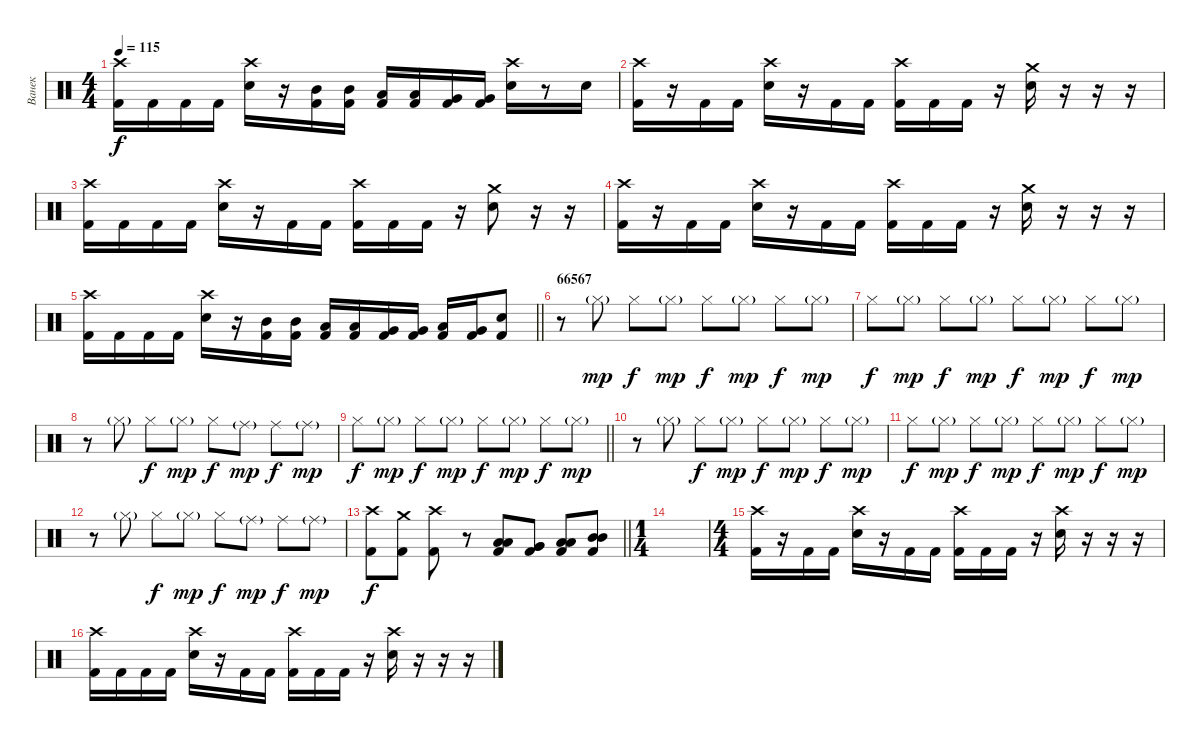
\track ("Ванек" "Ванек") {instrument percussion}
\staff {score}
\articulation defaults
\ts (4 4)
\tempo 115
\clef neutral
\ks c
("Crash high (hit)" "Kick (hit) 2").16{dy f} "Kick (hit) 2".16 "Kick (hit) 2".16 "Kick (hit) 2".16 ("Crash high (hit)" "Snare (hit) 2").16 r.16 ("Mid Tom (hit)" "Kick (hit) 2").16 ("Mid Tom (hit)" "Kick (hit) 2").16 ("Low Tom (hit)" "Kick (hit) 2").16 ("Low Floor Tom (hit)" "Kick (hit) 2").16 ("Very Low Tom (hit)" "Kick (hit) 2").16 ("Very Low Tom (hit)" "Kick (hit) 2").16 ("Crash high (hit)" "Snare (hit) 2").16 r.8 "Snare (hit) 2".16 |
("Crash high (hit)" "Kick (hit) 2").16 r.16 "Kick (hit) 2".16 "Kick (hit) 2".16 ("Crash high (hit)" "Snare (hit) 2").16 r.16 "Kick (hit) 2".16 "Kick (hit) 2".16 ("Crash high (hit)" "Kick (hit) 2").16 "Kick (hit) 2".16 "Kick (hit) 2".16 r.16 ("Crash medium (hit)" "Snare (hit) 2").16 r.16 r.16 r.16 |
("Crash high (hit)" "Kick (hit) 2").16 "Kick (hit) 2".16 "Kick (hit) 2".16 "Kick (hit) 2".16 ("Crash high (hit)" "Snare (hit) 2").16 r.16 "Kick (hit) 2".16 "Kick (hit) 2".16 ("Crash high (hit)" "Kick (hit) 2").16 "Kick (hit) 2".16 "Kick (hit) 2".16 r.16 ("Crash medium (hit)" "Snare (hit) 2").8 r.16 r.16 |
("Crash high (hit)" "Kick (hit) 2").16 r.16 "Kick (hit) 2".16 "Kick (hit) 2".16 ("Crash high (hit)" "Snare (hit) 2").16 r.16 "Kick (hit) 2".16 "Kick (hit) 2".16 ("Crash high (hit)" "Kick (hit) 2").16 "Kick (hit) 2".16 "Kick (hit) 2".16 r.16 ("Crash medium (hit)" "Snare (hit) 2").16 r.16 r.16 r.16 |
\barLineRight lightlight
("Crash high (hit)" "Kick (hit) 2").16 "Kick (hit) 2".16 "Kick (hit) 2".16 "Kick (hit) 2".16 ("Crash high (hit)" "Snare (hit) 2").16 r.16 ("Mid Tom (hit)" "Kick (hit) 2").16 ("Mid Tom (hit)" "Kick (hit) 2").16 ("Low Tom (hit)" "Kick (hit) 2").16 ("Low Floor Tom (hit)" "Kick (hit) 2").16 ("Very Low Tom (hit)" "Kick (hit) 2").16 ("Very Low Tom (hit)" "Kick (hit) 2").16 ("Low Floor Tom (hit)" "Kick (hit) 2").16 ("Very Low Tom (hit)" "Kick (hit) 2").16 ("Snare (hit) 2" "Kick (hit) 2").8 |
\section ("" "66567")
r.8 "Hi-Hat (closed)"{g}.8{dy mp} "Hi-Hat (closed)".8{dy f} "Hi-Hat (closed)"{g}.8{dy mp} "Hi-Hat (closed)".8{dy f} "Hi-Hat (closed)"{g}.8{dy mp} "Hi-Hat (closed)".8{dy f} "Hi-Hat (closed)"{g}.8{dy mp} |
"Hi-Hat (closed)".8{dy f} "Hi-Hat (closed)"{g}.8{dy mp} "Hi-Hat (closed)".8{dy f} "Hi-Hat (closed)"{g}.8{dy mp} "Hi-Hat (closed)".8{dy f} "Hi-Hat (closed)"{g}.8{dy mp} "Hi-Hat (closed)".8{dy f} "Hi-Hat (closed)"{g}.8{dy mp} |
r.8 "Hi-Hat (closed)"{g}.8 "Hi-Hat (closed)".8{dy f} "Hi-Hat (closed)"{g}.8{dy mp} "Hi-Hat (closed)".8{dy f} "Ride (middle)"{g}.8{dy mp} "Ride (middle)".8{dy f} "Ride (middle)"{g}.8{dy mp} |
\barLineRight lightlight "Hi-Hat (closed)".8{dy f} "Hi-Hat (closed)"{g}.8{dy mp} "Hi-Hat (closed)".8{dy f} "Hi-Hat (closed)"{g}.8{dy mp} "Hi-Hat (closed)".8{dy f} "Hi-Hat (closed)"{g}.8{dy mp} "Hi-Hat (closed)".8{dy f} "Hi-Hat (closed)"{g}.8{dy mp}
|
\section ("" "")
r.8 "Hi-Hat (closed)"{g}.8 "Hi-Hat (closed)".8{dy f} "Hi-Hat (closed)"{g}.8{dy mp} "Hi-Hat (closed)".8{dy f} "Hi-Hat (closed)"{g}.8{dy mp} "Hi-Hat (closed)".8{dy f} "Hi-Hat (closed)"{g}.8{dy mp} |
"Hi-Hat (closed)".8{dy f} "Hi-Hat (closed)"{g}.8{dy mp} "Hi-Hat (closed)".8{dy f} "Hi-Hat (closed)"{g}.8{dy mp} "Hi-Hat (closed)".8{dy f} "Hi-Hat (closed)"{g}.8{dy mp} "Hi-Hat (closed)".8{dy f} "Hi-Hat (closed)"{g}.8{dy mp} |
r.8 "Hi-Hat (closed)"{g}.8 "Hi-Hat (closed)".8{dy f} "Hi-Hat (closed)"{g}.8{dy mp} "Hi-Hat (closed)".8{dy f} "Ride (middle)"{g}.8{dy mp} "Ride (middle)".8{dy f} "Ride (middle)"{g}.8{dy mp} |
\barLineRight lightlight
("Crash high (hit)" "Kick (hit) 2").8{dy f} ("Crash medium (hit)" "Kick (hit) 2").8 ("Crash high (hit)" "Kick (hit) 2").8 r.8 ("Low Floor Tom (hit)" "Low Floor Tom (hit)" "Kick (hit) 2").8 ("Very Low Tom (hit)" "Very Low Tom (hit)" "Kick (hit) 2").8 ("Low Tom (hit)" "Low Tom (hit)" "Kick (hit) 2").8 ("Mid Tom (hit)" "Mid Tom (hit)" "Kick (hit) 2").8 |
\ts (1 4)
|
\ts (4 4)
("Crash high (hit)" "Kick (hit) 2").16 r.16 "Kick (hit) 2".16 "Kick (hit) 2".16 ("Crash high (hit)" "Snare (hit) 2").16 r.16 "Kick (hit) 2".16 "Kick (hit) 2".16 ("Crash high (hit)" "Kick (hit) 2").16 "Kick (hit) 2".16 "Kick (hit) 2".16 r.16 ("Crash high (hit)" "Snare (hit) 2").16 r.16 r.16 r.16 |
("Crash high (hit)" "Kick (hit) 2").16 "Kick (hit) 2".16 "Kick (hit) 2".16 "Kick (hit) 2".16 ("Crash high (hit)" "Snare (hit) 2").16 r.16 "Kick (hit) 2".16 "Kick (hit) 2".16 ("Crash high (hit)" "Kick (hit) 2").16 "Kick (hit) 2".16 "Kick (hit) 2".16 r.16 ("Crash high (hit)" "Snare (hit) 2").16 r.16 r.16 r.16
